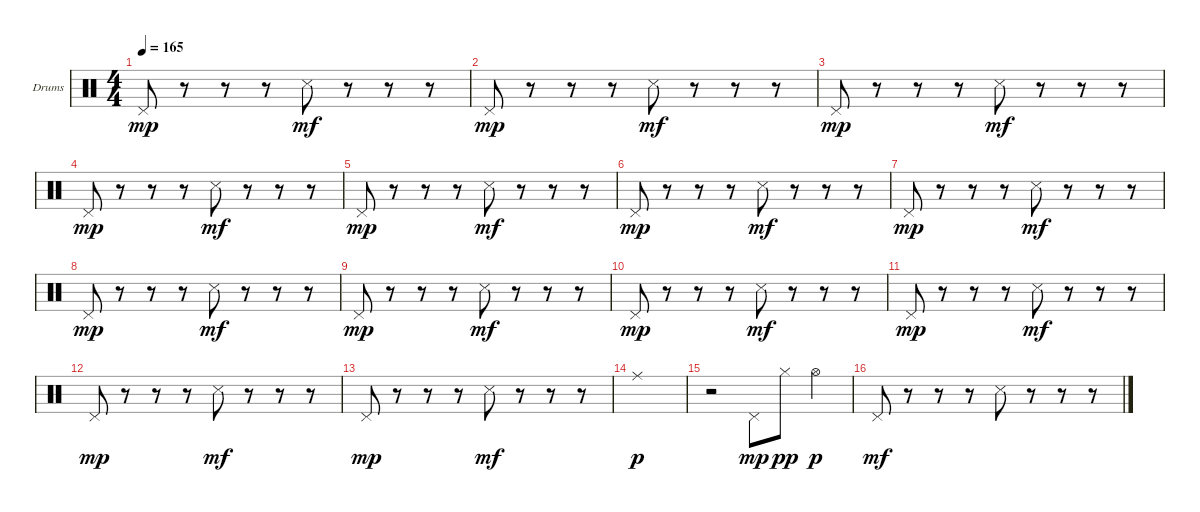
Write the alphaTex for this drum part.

\defaultSystemsLayout 4
\bracketExtendMode groupsimilarinstruments
\firstSystemTrackNameOrientation horizontal
\otherSystemsTrackNameOrientation horizontal
\track ("Drumkit" "Drums") {instrument percussion}
\staff {score}
\articulation defaults
\ts (4 4)
\tempo 165
\clef neutral
\ks c "Pedal Hi-Hat (hit)".8{dy mp}
r.8 r.8 r.8 "Snare (side stick) 3".8{dy mf} r.8 r.8 r.8 |
"Pedal Hi-Hat (hit)".8{dy mp} r.8 r.8 r.8 "Snare (side stick) 3".8{dy mf} r.8 r.8 r.8 |
"Pedal Hi-Hat (hit)".8{dy mp} r.8 r.8 r.8 "Snare (side stick) 3".8{dy mf} r.8 r.8 r.8 |
"Pedal Hi-Hat (hit)".8{dy mp} r.8 r.8 r.8 "Snare (side stick) 3".8{dy mf} r.8 r.8 r.8 |
"Pedal Hi-Hat (hit)".8{dy mp} r.8 r.8 r.8 "Snare (side stick) 3".8{dy mf} r.8 r.8 r.8 |
"Pedal Hi-Hat (hit)".8{dy mp} r.8 r.8 r.8 "Snare (side stick) 3".8{dy mf} r.8 r.8 r.8 |
"Pedal Hi-Hat (hit)".8{dy mp} r.8 r.8 r.8 "Snare (side stick) 3".8{dy mf} r.8 r.8 r.8 |
"Pedal Hi-Hat (hit)".8{dy mp} r.8 r.8 r.8 "Snare (side stick) 3".8{dy mf} r.8 r.8 r.8 |
"Pedal Hi-Hat (hit)".8{dy mp} r.8 r.8 r.8 "Snare (side stick) 3".8{dy mf} r.8 r.8 r.8 |
"Pedal Hi-Hat (hit)".8{dy mp} r.8 r.8 r.8 "Snare (side stick) 3".8{dy mf} r.8 r.8 r.8 |
"Pedal Hi-Hat (hit)".8{dy mp} r.8 r.8 r.8 "Snare (side stick) 3".8{dy mf} r.8 r.8 r.8 |
"Pedal Hi-Hat (hit)".8{dy mp} r.8 r.8 r.8 "Snare (side stick) 3".8{dy mf} r.8 r.8 r.8 |
"Pedal Hi-Hat (hit)".8{dy mp} r.8 r.8 r.8 "Snare (side stick) 3".8{dy mf} r.8 r.8 r.8 |
"Ride (middle)".1{dy p} |
r.2 "Pedal Hi-Hat (hit)".8{dy mp} "Hi-Hat (closed)".8{dy pp} "Hi-Hat (open)".4{dy p} |
"Pedal Hi-Hat (hit)".8{dy mf} r.8 r.8 r.8 "Snare (side stick) 3".8 r.8 r.8 r.8
